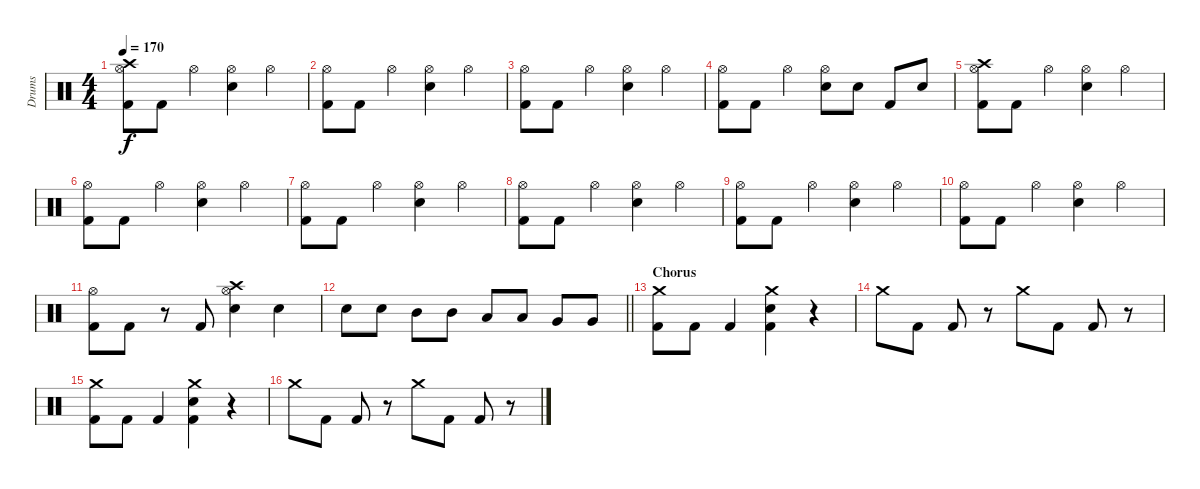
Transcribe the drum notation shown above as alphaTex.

\track ("Drums" "Drums") {instrument percussion}
\staff {score}
\articulation defaults
\ts (4 4)
\tempo 170
\clef neutral
\ks c
("Hi-Hat (open)" "Crash high (hit)" "Kick (hit) 2").8{dy f} "Kick (hit) 2".8 "Hi-Hat (open)".4 ("Hi-Hat (open)" "Electric Snare (hit)").4 "Hi-Hat (open)".4 |
("Hi-Hat (open)" "Kick (hit) 2").8 "Kick (hit) 2".8 "Hi-Hat (open)".4 ("Hi-Hat (open)" "Electric Snare (hit)").4 "Hi-Hat (open)".4 |
("Hi-Hat (open)" "Kick (hit) 2").8 "Kick (hit) 2".8 "Hi-Hat (open)".4 ("Hi-Hat (open)" "Electric Snare (hit)").4 "Hi-Hat (open)".4 |
("Hi-Hat (open)" "Kick (hit) 2").8 "Kick (hit) 2".8 "Hi-Hat (open)".4 ("Hi-Hat (open)" "Electric Snare (hit)").8 "Electric Snare (hit)".8 "Kick (hit) 2".8 "Electric Snare (hit)".8 |
("Hi-Hat (open)" "Crash high (hit)" "Kick (hit) 2").8 "Kick (hit) 2".8 "Hi-Hat (open)".4 ("Hi-Hat (open)" "Electric Snare (hit)").4 "Hi-Hat (open)".4 |
("Hi-Hat (open)" "Kick (hit) 2").8 "Kick (hit) 2".8 "Hi-Hat (open)".4 ("Hi-Hat (open)" "Electric Snare (hit)").4 "Hi-Hat (open)".4 |
("Hi-Hat (open)" "Kick (hit) 2").8 "Kick (hit) 2".8 "Hi-Hat (open)".4 ("Hi-Hat (open)" "Electric Snare (hit)").4 "Hi-Hat (open)".4 |
("Hi-Hat (open)" "Kick (hit) 2").8 "Kick (hit) 2".8 "Hi-Hat (open)".4 ("Hi-Hat (open)" "Electric Snare (hit)").4 "Hi-Hat (open)".4 |
("Hi-Hat (open)" "Kick (hit) 2").8 "Kick (hit) 2".8 "Hi-Hat (open)".4 ("Hi-Hat (open)" "Electric Snare (hit)").4 "Hi-Hat (open)".4 |
("Hi-Hat (open)" "Kick (hit) 2").8 "Kick (hit) 2".8 "Hi-Hat (open)".4 ("Hi-Hat (open)" "Electric Snare (hit)").4 "Hi-Hat (open)".4 |
("Hi-Hat (open)" "Kick (hit) 2").8 "Kick (hit) 2".8 r.8 "Kick (hit) 2".8 ("Hi-Hat (open)" "Crash high (hit)" "Electric Snare (hit)").4 "Electric Snare (hit)".4 |
\barLineRight lightlight "Electric Snare (hit)".8 "Electric Snare (hit)".8 "Mid Tom (hit)".8 "Mid Tom (hit)".8 "Low Tom (hit)".8 "Low Tom (hit)".8 "Very Low Tom (hit)".8 "Very Low Tom (hit)".8
|
\section ("" "Chorus")
("Crash medium (hit)" "Kick (hit) 2").8 "Kick (hit) 2".8 "Kick (hit) 2".4 ("Crash medium (hit)" "Electric Snare (hit)" "Kick (hit) 2").4 r.4 |
"Crash medium (hit)".8 "Kick (hit) 2".8 "Kick (hit) 2".8 r.8 "Crash medium (hit)".8 "Kick (hit) 2".8 "Kick (hit) 2".8 r.8 |
("Crash medium (hit)" "Kick (hit) 2").8 "Kick (hit) 2".8 "Kick (hit) 2".4 ("Crash medium (hit)" "Electric Snare (hit)" "Kick (hit) 2").4 r.4 |
"Crash medium (hit)".8 "Kick (hit) 2".8 "Kick (hit) 2".8 r.8 "Crash medium (hit)".8 "Kick (hit) 2".8 "Kick (hit) 2".8 r.8
